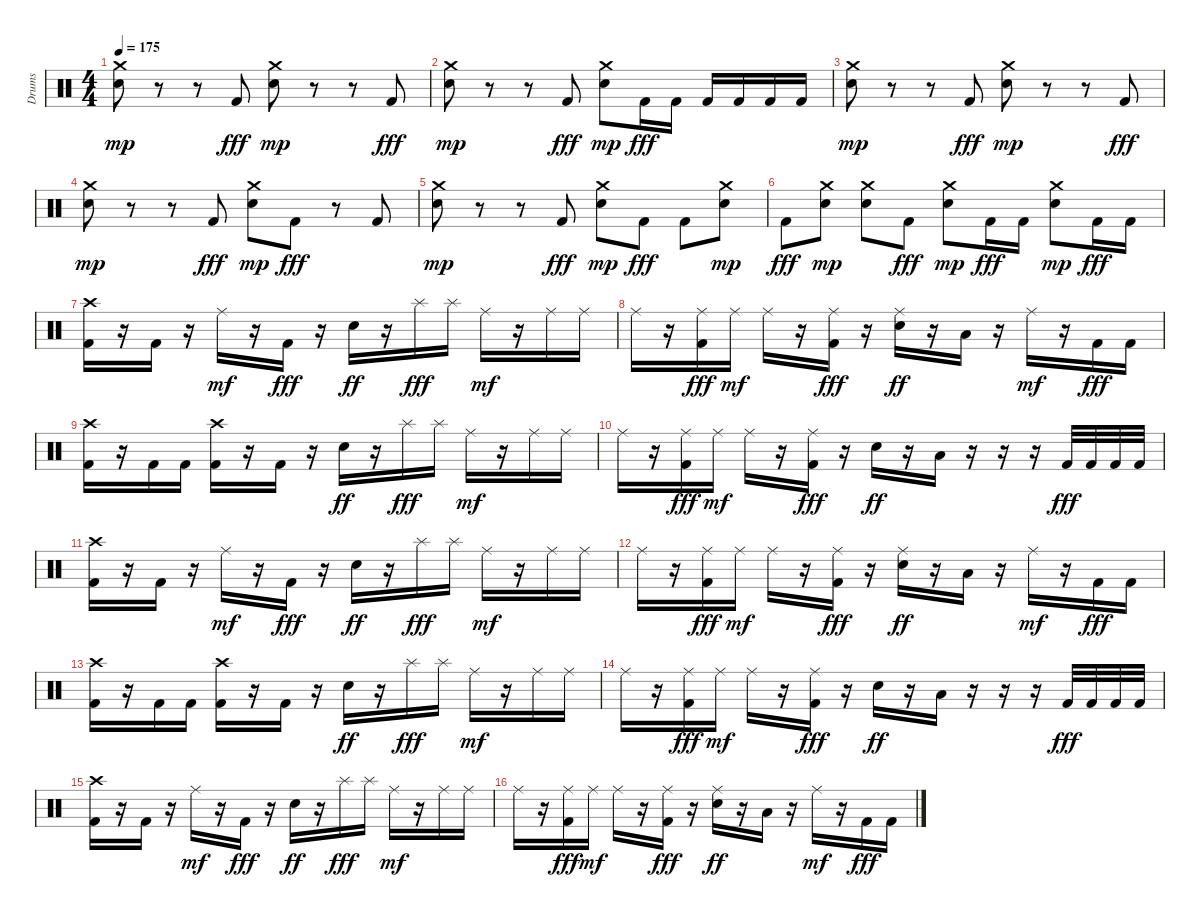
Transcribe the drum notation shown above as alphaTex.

\track ("Drums" "Drums") {instrument percussion}
\staff {score}
\articulation defaults
\ts (4 4)
\tempo 175
\clef neutral
\ks c
("Crash medium (hit)" "Snare (hit) 2").8{dy mp} r.8 r.8 "Kick (hit) 2".8{dy fff} ("Crash medium (hit)" "Snare (hit) 2").8{dy mp} r.8 r.8 "Kick (hit) 2".8{dy fff} |
("Crash medium (hit)" "Snare (hit) 2").8{dy mp} r.8 r.8 "Kick (hit) 2".8{dy fff} ("Crash medium (hit)" "Snare (hit) 2").8{dy mp} "Kick (hit) 2".16{dy fff} "Kick (hit) 2".16 "Kick (hit) 2".16 "Kick (hit) 2".16 "Kick (hit) 2".16 "Kick (hit) 2".16 |
("Crash medium (hit)" "Snare (hit) 2").8{dy mp} r.8 r.8 "Kick (hit) 2".8{dy fff} ("Crash medium (hit)" "Snare (hit) 2").8{dy mp} r.8 r.8 "Kick (hit) 2".8{dy fff} |
("Crash medium (hit)" "Snare (hit) 2").8{dy mp} r.8 r.8 "Kick (hit) 2".8{dy fff} ("Crash medium (hit)" "Snare (hit) 2").8{dy mp} "Kick (hit) 2".8{dy fff} r.8 "Kick (hit) 2".8 |
("Crash medium (hit)" "Snare (hit) 2").8{dy mp} r.8 r.8 "Kick (hit) 2".8{dy fff} ("Crash medium (hit)" "Snare (hit) 2").8{dy mp} "Kick (hit) 2".8{dy fff} "Kick (hit) 2".8 ("Crash medium (hit)" "Snare (hit) 2").8{dy mp} |
"Kick (hit) 2".8{dy fff} ("Crash medium (hit)" "Snare (hit) 2").8{dy mp} ("Crash medium (hit)" "Snare (hit) 2").8 "Kick (hit) 2".8{dy fff} ("Crash medium (hit)" "Snare (hit) 2").8{dy mp} "Kick (hit) 2".16{dy fff} "Kick (hit) 2".16 ("Crash medium (hit)" "Snare (hit) 2").8{dy mp} "Kick (hit) 2".16{dy fff} "Kick (hit) 2".16 |
("Crash high (hit)" "Kick (hit) 2").16 r.16 "Kick (hit) 2".16 r.16 "Ride (middle)".16{dy mf} r.16 "Kick (hit) 2".16{dy fff} r.16 "Snare (hit) 2".16{dy ff} r.16 "Splash (hit)".16{dy fff} "Splash (hit)".16 "Ride (middle)".16{dy mf} r.16 "Ride (middle)".16 "Ride (middle)".16 |
"Ride (middle)".16 r.16 ("Ride (middle)" "Kick (hit) 2").16{dy fff} "Ride (middle)".16{dy mf} "Ride (middle)".16 r.16 ("Ride (middle)" "Kick (hit) 2").16{dy fff} r.16 ("Ride (middle)" "Snare (hit) 2").16{dy ff} r.16 "Low Tom (hit)".16 r.16 "Ride (middle)".16{dy mf} r.16 "Kick (hit) 2".16{dy fff} "Kick (hit) 2".16 |
("Crash high (hit)" "Kick (hit) 2").16 r.16 "Kick (hit) 2".16 "Kick (hit) 2".16 ("Crash high (hit)" "Kick (hit) 2").16 r.16 "Kick (hit) 2".16 r.16 "Snare (hit) 2".16{dy ff} r.16 "Splash (hit)".16{dy fff} "Splash (hit)".16 "Ride (middle)".16{dy mf} r.16 "Ride (middle)".16 "Ride (middle)".16 |
"Ride (middle)".16 r.16 ("Ride (middle)" "Kick (hit) 2").16{dy fff} "Ride (middle)".16{dy mf} "Ride (middle)".16 r.16 ("Ride (middle)" "Kick (hit) 2").16{dy fff} r.16 "Snare (hit) 2".16{dy ff} r.16 "Low Tom (hit)".16 r.16 r.16 r.16 "Kick (hit) 2".32{dy fff} "Kick (hit) 2".32 "Kick (hit) 2".32 "Kick (hit) 2".32 |
("Crash high (hit)" "Kick (hit) 2").16 r.16 "Kick (hit) 2".16 r.16 "Ride (middle)".16{dy mf} r.16 "Kick (hit) 2".16{dy fff} r.16 "Snare (hit) 2".16{dy ff} r.16 "Splash (hit)".16{dy fff} "Splash (hit)".16 "Ride (middle)".16{dy mf} r.16 "Ride (middle)".16 "Ride (middle)".16 |
"Ride (middle)".16 r.16 ("Ride (middle)" "Kick (hit) 2").16{dy fff} "Ride (middle)".16{dy mf} "Ride (middle)".16 r.16 ("Ride (middle)" "Kick (hit) 2").16{dy fff} r.16 ("Ride (middle)" "Snare (hit) 2").16{dy ff} r.16 "Low Tom (hit)".16 r.16 "Ride (middle)".16{dy mf} r.16 "Kick (hit) 2".16{dy fff} "Kick (hit) 2".16 |
("Crash high (hit)" "Kick (hit) 2").16 r.16 "Kick (hit) 2".16 "Kick (hit) 2".16 ("Crash high (hit)" "Kick (hit) 2").16 r.16 "Kick (hit) 2".16 r.16 "Snare (hit) 2".16{dy ff} r.16 "Splash (hit)".16{dy fff} "Splash (hit)".16 "Ride (middle)".16{dy mf} r.16 "Ride (middle)".16 "Ride (middle)".16 |
"Ride (middle)".16 r.16 ("Ride (middle)" "Kick (hit) 2").16{dy fff} "Ride (middle)".16{dy mf} "Ride (middle)".16 r.16 ("Ride (middle)" "Kick (hit) 2").16{dy fff} r.16 "Snare (hit) 2".16{dy ff} r.16 "Low Tom (hit)".16 r.16 r.16 r.16 "Kick (hit) 2".32{dy fff} "Kick (hit) 2".32 "Kick (hit) 2".32 "Kick (hit) 2".32 |
("Crash high (hit)" "Kick (hit) 2").16 r.16 "Kick (hit) 2".16 r.16 "Ride (middle)".16{dy mf} r.16 "Kick (hit) 2".16{dy fff} r.16 "Snare (hit) 2".16{dy ff} r.16 "Splash (hit)".16{dy fff} "Splash (hit)".16 "Ride (middle)".16{dy mf} r.16 "Ride (middle)".16 "Ride (middle)".16 |
"Ride (middle)".16 r.16 ("Ride (middle)" "Kick (hit) 2").16{dy fff} "Ride (middle)".16{dy mf} "Ride (middle)".16 r.16 ("Ride (middle)" "Kick (hit) 2").16{dy fff} r.16 ("Ride (middle)" "Snare (hit) 2").16{dy ff} r.16 "Low Tom (hit)".16 r.16 "Ride (middle)".16{dy mf} r.16 "Kick (hit) 2".16{dy fff} "Kick (hit) 2".16
